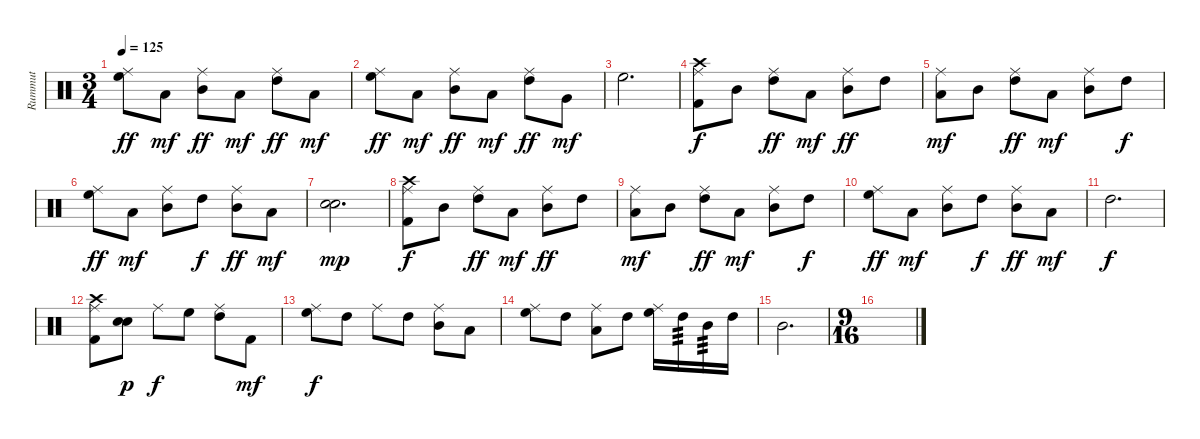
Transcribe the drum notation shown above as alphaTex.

\track ("Rummut" "Rummut") {instrument percussion}
\staff {score}
\articulation defaults
\ts (3 4)
\tempo 125
\clef neutral
\ks c
("Ride (middle)" "High Floor Tom (hit)").8{dy ff} "Low Floor Tom (hit)".8{dy mf} ("Ride (middle)" "Mid Tom (hit)").8{dy ff} "Low Floor Tom (hit)".8{dy mf} ("Ride (middle)" "High Tom (hit)").8{dy ff} "Low Floor Tom (hit)".8{dy mf} |
("Ride (middle)" "High Floor Tom (hit)").8{dy ff} "Low Tom (hit)".8{dy mf} ("Ride (middle)" "Mid Tom (hit)").8{dy ff} "Low Tom (hit)".8{dy mf} ("Ride (middle)" "High Tom (hit)").8{dy ff} "Very Low Tom (hit)".8{dy mf} |
"High Floor Tom (hit)".2{d} |
("Crash high (hit)" "Ride (middle)" "Kick (hit) 2").8{dy f} "Mid Tom (hit)".8 ("Ride (middle)" "High Tom (hit)").8{dy ff} "Low Floor Tom (hit)".8{dy mf} ("Ride (middle)" "Mid Tom (hit)").8{dy ff} "High Tom (hit)".8 |
("Ride (middle)" "Low Floor Tom (hit)").8{dy mf} "Mid Tom (hit)".8 ("Ride (middle)" "High Tom (hit)").8{dy ff} "Low Tom (hit)".8{dy mf} ("Ride (middle)" "Mid Tom (hit)").8 "High Tom (hit)".8{dy f} |
("Ride (middle)" "High Floor Tom (hit)").8{dy ff} "Low Floor Tom (hit)".8{dy mf} ("Ride (middle)" "Mid Tom (hit)").8 "High Tom (hit)".8{dy f} ("Ride (middle)" "Mid Tom (hit)").8{dy ff} "Low Tom (hit)".8{dy mf} |
("Electric Snare (hit)" "Snare (hit) 2").2{d dy mp} |
("Crash high (hit)" "Ride (middle)" "Kick (hit) 2").8{dy f} "Mid Tom (hit)".8 ("Ride (middle)" "High Tom (hit)").8{dy ff} "Low Floor Tom (hit)".8{dy mf} ("Ride (middle)" "Mid Tom (hit)").8{dy ff} "High Tom (hit)".8 |
("Ride (middle)" "Low Floor Tom (hit)").8{dy mf} "Mid Tom (hit)".8 ("Ride (middle)" "High Tom (hit)").8{dy ff} "Low Tom (hit)".8{dy mf} ("Ride (middle)" "Mid Tom (hit)").8 "High Tom (hit)".8{dy f} |
("Ride (middle)" "High Floor Tom (hit)").8{dy ff} "Low Floor Tom (hit)".8{dy mf} ("Ride (middle)" "Mid Tom (hit)").8 "High Tom (hit)".8{dy f} ("Ride (middle)" "Mid Tom (hit)").8{dy ff} "Low Tom (hit)".8{dy mf} |
"High Tom (hit)".2{d dy f} |
("Crash high (hit)" "Ride (middle)" "Kick (hit) 2").8 ("Electric Snare (hit)" "Snare (hit) 2").8{dy p} "Ride (middle)".8{dy f} "High Floor Tom (hit)".8 ("Ride (middle)" "High Tom (hit)").8 "Kick (hit) 2".8{dy mf} |
("Ride (middle)" "High Floor Tom (hit)").8{dy f} "High Tom (hit)".8 "Ride (middle)".8 "High Tom (hit)".8 ("Ride (middle)" "Mid Tom (hit)").8 "Low Tom (hit)".8 |
("Ride (middle)" "High Floor Tom (hit)").8 "High Tom (hit)".8 ("Ride (middle)" "Low Tom (hit)").8 "High Tom (hit)".8 ("Ride (middle)" "High Floor Tom (hit)").16 "High Tom (hit)".16{tp 3} "Mid Tom (hit)".16{tp 3} "High Tom (hit)".16 |
"Mid Tom (hit)".2{d} |
\ts (9 16)
